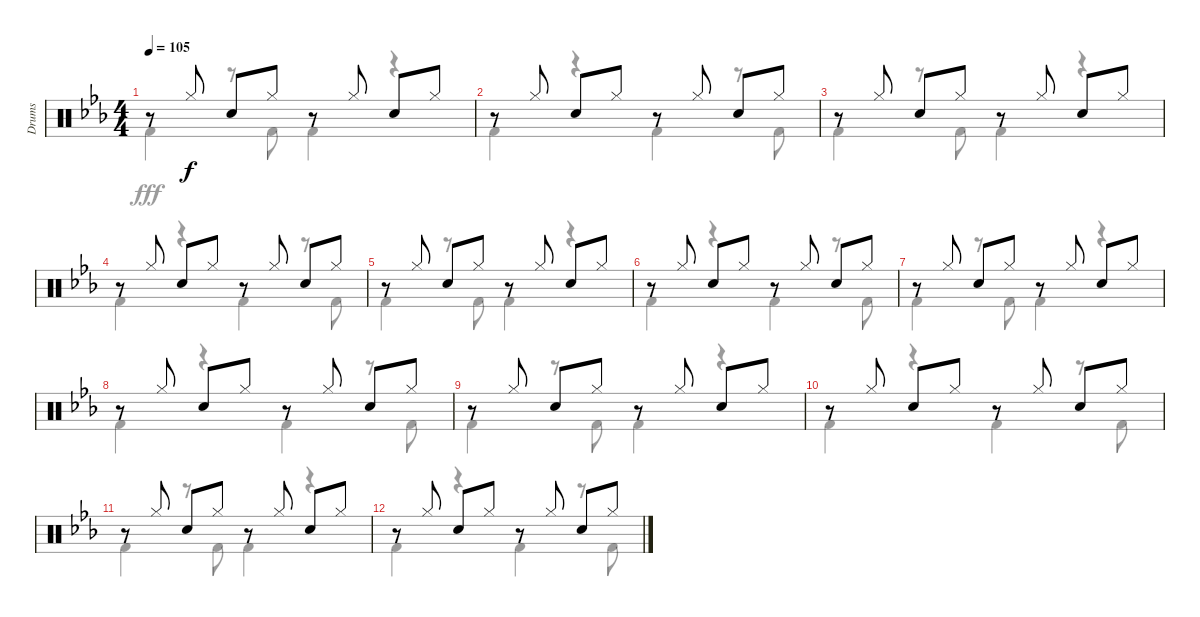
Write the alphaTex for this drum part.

\track ("Drums" "Drums") {instrument percussion}
\staff {score}
\articulation defaults
\voice
\ts (4 4)
\tempo 105
\clef neutral
\ks eb
r.8{dy f} "Hi-Hat (closed)".8 "Snare (hit) 2".8 "Hi-Hat (closed)".8 r.8 "Hi-Hat (closed)".8 "Snare (hit) 2".8 "Hi-Hat (closed)".8 |
r.8 "Hi-Hat (closed)".8 "Snare (hit) 2".8 "Hi-Hat (closed)".8 r.8 "Hi-Hat (closed)".8 "Snare (hit) 2".8 "Hi-Hat (closed)".8 |
r.8 "Hi-Hat (closed)".8 "Snare (hit) 2".8 "Hi-Hat (closed)".8 r.8 "Hi-Hat (closed)".8 "Snare (hit) 2".8 "Hi-Hat (closed)".8 |
r.8 "Hi-Hat (closed)".8 "Snare (hit) 2".8 "Hi-Hat (closed)".8 r.8 "Hi-Hat (closed)".8 "Snare (hit) 2".8 "Hi-Hat (closed)".8 |
r.8 "Hi-Hat (closed)".8 "Snare (hit) 2".8 "Hi-Hat (closed)".8 r.8 "Hi-Hat (closed)".8 "Snare (hit) 2".8 "Hi-Hat (closed)".8 |
r.8 "Hi-Hat (closed)".8 "Snare (hit) 2".8 "Hi-Hat (closed)".8 r.8 "Hi-Hat (closed)".8 "Snare (hit) 2".8 "Hi-Hat (closed)".8 |
r.8 "Hi-Hat (closed)".8 "Snare (hit) 2".8 "Hi-Hat (closed)".8 r.8 "Hi-Hat (closed)".8 "Snare (hit) 2".8 "Hi-Hat (closed)".8 |
r.8 "Hi-Hat (closed)".8 "Snare (hit) 2".8 "Hi-Hat (closed)".8 r.8 "Hi-Hat (closed)".8 "Snare (hit) 2".8 "Hi-Hat (closed)".8 |
r.8 "Hi-Hat (closed)".8 "Snare (hit) 2".8 "Hi-Hat (closed)".8 r.8 "Hi-Hat (closed)".8 "Snare (hit) 2".8 "Hi-Hat (closed)".8 |
r.8 "Hi-Hat (closed)".8 "Snare (hit) 2".8 "Hi-Hat (closed)".8 r.8 "Hi-Hat (closed)".8 "Snare (hit) 2".8 "Hi-Hat (closed)".8 |
r.8 "Hi-Hat (closed)".8 "Snare (hit) 2".8 "Hi-Hat (closed)".8 r.8 "Hi-Hat (closed)".8 "Snare (hit) 2".8 "Hi-Hat (closed)".8 |
r.8 "Hi-Hat (closed)".8 "Snare (hit) 2".8 "Hi-Hat (closed)".8 r.8 "Hi-Hat (closed)".8 "Snare (hit) 2".8 "Hi-Hat (closed)".8
\voice
\clef neutral
\ottava regular
\simile none
\ks eb "Kick (hit) 2".4{dy fff}
r.8 "Kick (hit) 2".8 "Kick (hit) 2".4 r.4 |
"Kick (hit) 2".4 r.4 "Kick (hit) 2".4 r.8 "Kick (hit) 2".8 |
"Kick (hit) 2".4 r.8 "Kick (hit) 2".8 "Kick (hit) 2".4 r.4 |
"Kick (hit) 2".4 r.4 "Kick (hit) 2".4 r.8 "Kick (hit) 2".8 |
"Kick (hit) 2".4 r.8 "Kick (hit) 2".8 "Kick (hit) 2".4 r.4 |
"Kick (hit) 2".4 r.4 "Kick (hit) 2".4 r.8 "Kick (hit) 2".8 |
"Kick (hit) 2".4 r.8 "Kick (hit) 2".8 "Kick (hit) 2".4 r.4 |
"Kick (hit) 2".4 r.4 "Kick (hit) 2".4 r.8 "Kick (hit) 2".8 |
"Kick (hit) 2".4 r.8 "Kick (hit) 2".8 "Kick (hit) 2".4 r.4 |
"Kick (hit) 2".4 r.4 "Kick (hit) 2".4 r.8 "Kick (hit) 2".8 |
"Kick (hit) 2".4 r.8 "Kick (hit) 2".8 "Kick (hit) 2".4 r.4 |
"Kick (hit) 2".4 r.4 "Kick (hit) 2".4 r.8 "Kick (hit) 2".8
